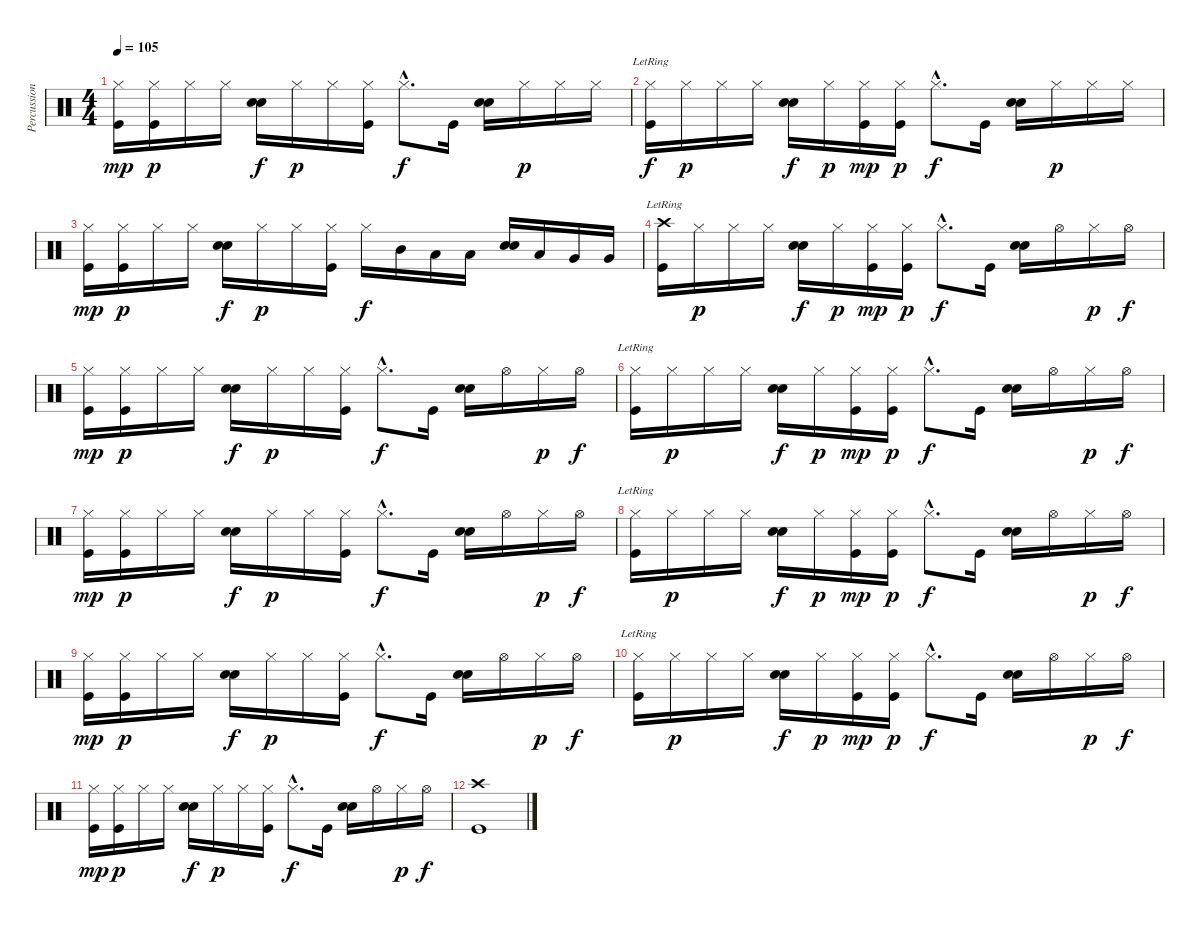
\track ("Percussions" "Percussion") {instrument percussion}
\staff {score}
\articulation defaults
\ts (4 4)
\tempo 105
\clef neutral
\ks c
("Hi-Hat (closed)" "Kick (hit)").16{dy mp} ("Hi-Hat (closed)" "Kick (hit)").16{dy p} "Hi-Hat (closed)".16 "Hi-Hat (closed)".16 ("Hand Clap (hit)" "Snare (hit) 2").16{dy f} "Hi-Hat (closed)".16{dy p} "Hi-Hat (closed)".16 ("Hi-Hat (closed)" "Kick (hit)").16 "Hi-Hat (closed)"{hac}.8{d dy f} "Kick (hit)".16 ("Hand Clap (hit)" "Snare (hit) 2").16 "Hi-Hat (closed)".16{dy p} "Hi-Hat (closed)".16 "Hi-Hat (closed)".16 |
("Hi-Hat (closed)"{lr} "Kick (hit)").16{dy f} "Hi-Hat (closed)".16{dy p} "Hi-Hat (closed)".16 "Hi-Hat (closed)".16 ("Hand Clap (hit)" "Snare (hit) 2").16{dy f} "Hi-Hat (closed)".16{dy p} ("Hi-Hat (closed)" "Kick (hit)").16{dy mp} ("Hi-Hat (closed)" "Kick (hit)").16{dy p} "Hi-Hat (closed)"{hac}.8{d dy f} "Kick (hit)".16 ("Hand Clap (hit)" "Snare (hit) 2").16 "Hi-Hat (closed)".16{dy p} "Hi-Hat (closed)".16 "Hi-Hat (closed)".16 |
("Hi-Hat (closed)" "Kick (hit)").16{dy mp} ("Hi-Hat (closed)" "Kick (hit)").16{dy p} "Hi-Hat (closed)".16 "Hi-Hat (closed)".16 ("Hand Clap (hit)" "Snare (hit) 2").16{dy f} "Hi-Hat (closed)".16{dy p} "Hi-Hat (closed)".16 ("Hi-Hat (closed)" "Kick (hit)").16 "Hi-Hat (closed)".16{dy f} "Mid Tom (hit)".16 "Low Tom (hit)".16 "Low Tom (hit)".16 ("Hand Clap (hit)" "Snare (hit) 2").16 "Low Tom (hit)".16 "Very Low Tom (hit)".16 "Very Low Tom (hit)".16 |
("Crash high (hit)"{lr} "Kick (hit)").16 "Hi-Hat (closed)".16{dy p} "Hi-Hat (closed)".16 "Hi-Hat (closed)".16 ("Hand Clap (hit)" "Snare (hit) 2").16{dy f} "Hi-Hat (closed)".16{dy p} ("Hi-Hat (closed)" "Kick (hit)").16{dy mp} ("Hi-Hat (closed)" "Kick (hit)").16{dy p} "Hi-Hat (closed)"{hac}.8{d dy f} "Kick (hit)".16 ("Hand Clap (hit)" "Snare (hit) 2").16 "Hi-Hat (open)".16 "Hi-Hat (closed)".16{dy p} "Hi-Hat (open)".16{dy f} |
("Hi-Hat (closed)" "Kick (hit)").16{dy mp} ("Hi-Hat (closed)" "Kick (hit)").16{dy p} "Hi-Hat (closed)".16 "Hi-Hat (closed)".16 ("Hand Clap (hit)" "Snare (hit) 2").16{dy f} "Hi-Hat (closed)".16{dy p} "Hi-Hat (closed)".16 ("Hi-Hat (closed)" "Kick (hit)").16 "Hi-Hat (closed)"{hac}.8{d dy f} "Kick (hit)".16 ("Hand Clap (hit)" "Snare (hit) 2").16 "Hi-Hat (open)".16 "Hi-Hat (closed)".16{dy p} "Hi-Hat (open)".16{dy f} |
("Hi-Hat (closed)"{lr} "Kick (hit)").16 "Hi-Hat (closed)".16{dy p} "Hi-Hat (closed)".16 "Hi-Hat (closed)".16 ("Hand Clap (hit)" "Snare (hit) 2").16{dy f} "Hi-Hat (closed)".16{dy p} ("Hi-Hat (closed)" "Kick (hit)").16{dy mp} ("Hi-Hat (closed)" "Kick (hit)").16{dy p} "Hi-Hat (closed)"{hac}.8{d dy f} "Kick (hit)".16 ("Hand Clap (hit)" "Snare (hit) 2").16 "Hi-Hat (open)".16 "Hi-Hat (closed)".16{dy p} "Hi-Hat (open)".16{dy f} |
("Hi-Hat (closed)" "Kick (hit)").16{dy mp} ("Hi-Hat (closed)" "Kick (hit)").16{dy p} "Hi-Hat (closed)".16 "Hi-Hat (closed)".16 ("Hand Clap (hit)" "Snare (hit) 2").16{dy f} "Hi-Hat (closed)".16{dy p} "Hi-Hat (closed)".16 ("Hi-Hat (closed)" "Kick (hit)").16 "Hi-Hat (closed)"{hac}.8{d dy f} "Kick (hit)".16 ("Hand Clap (hit)" "Snare (hit) 2").16 "Hi-Hat (open)".16 "Hi-Hat (closed)".16{dy p} "Hi-Hat (open)".16{dy f} |
("Hi-Hat (closed)"{lr} "Kick (hit)").16 "Hi-Hat (closed)".16{dy p} "Hi-Hat (closed)".16 "Hi-Hat (closed)".16 ("Hand Clap (hit)" "Snare (hit) 2").16{dy f} "Hi-Hat (closed)".16{dy p} ("Hi-Hat (closed)" "Kick (hit)").16{dy mp} ("Hi-Hat (closed)" "Kick (hit)").16{dy p} "Hi-Hat (closed)"{hac}.8{d dy f} "Kick (hit)".16 ("Hand Clap (hit)" "Snare (hit) 2").16 "Hi-Hat (open)".16 "Hi-Hat (closed)".16{dy p} "Hi-Hat (open)".16{dy f} |
("Hi-Hat (closed)" "Kick (hit)").16{dy mp} ("Hi-Hat (closed)" "Kick (hit)").16{dy p} "Hi-Hat (closed)".16 "Hi-Hat (closed)".16 ("Hand Clap (hit)" "Snare (hit) 2").16{dy f} "Hi-Hat (closed)".16{dy p} "Hi-Hat (closed)".16 ("Hi-Hat (closed)" "Kick (hit)").16 "Hi-Hat (closed)"{hac}.8{d dy f} "Kick (hit)".16 ("Hand Clap (hit)" "Snare (hit) 2").16 "Hi-Hat (open)".16 "Hi-Hat (closed)".16{dy p} "Hi-Hat (open)".16{dy f} |
("Hi-Hat (closed)"{lr} "Kick (hit)").16 "Hi-Hat (closed)".16{dy p} "Hi-Hat (closed)".16 "Hi-Hat (closed)".16 ("Hand Clap (hit)" "Snare (hit) 2").16{dy f} "Hi-Hat (closed)".16{dy p} ("Hi-Hat (closed)" "Kick (hit)").16{dy mp} ("Hi-Hat (closed)" "Kick (hit)").16{dy p} "Hi-Hat (closed)"{hac}.8{d dy f} "Kick (hit)".16 ("Hand Clap (hit)" "Snare (hit) 2").16 "Hi-Hat (open)".16 "Hi-Hat (closed)".16{dy p} "Hi-Hat (open)".16{dy f} |
("Hi-Hat (closed)" "Kick (hit)").16{dy mp} ("Hi-Hat (closed)" "Kick (hit)").16{dy p} "Hi-Hat (closed)".16 "Hi-Hat (closed)".16 ("Hand Clap (hit)" "Snare (hit) 2").16{dy f} "Hi-Hat (closed)".16{dy p} "Hi-Hat (closed)".16 ("Hi-Hat (closed)" "Kick (hit)").16 "Hi-Hat (closed)"{hac}.8{d dy f} "Kick (hit)".16 ("Hand Clap (hit)" "Snare (hit) 2").16 "Hi-Hat (open)".16 "Hi-Hat (closed)".16{dy p} "Hi-Hat (open)".16{dy f} |
("Crash high (hit)" "Kick (hit)").1
